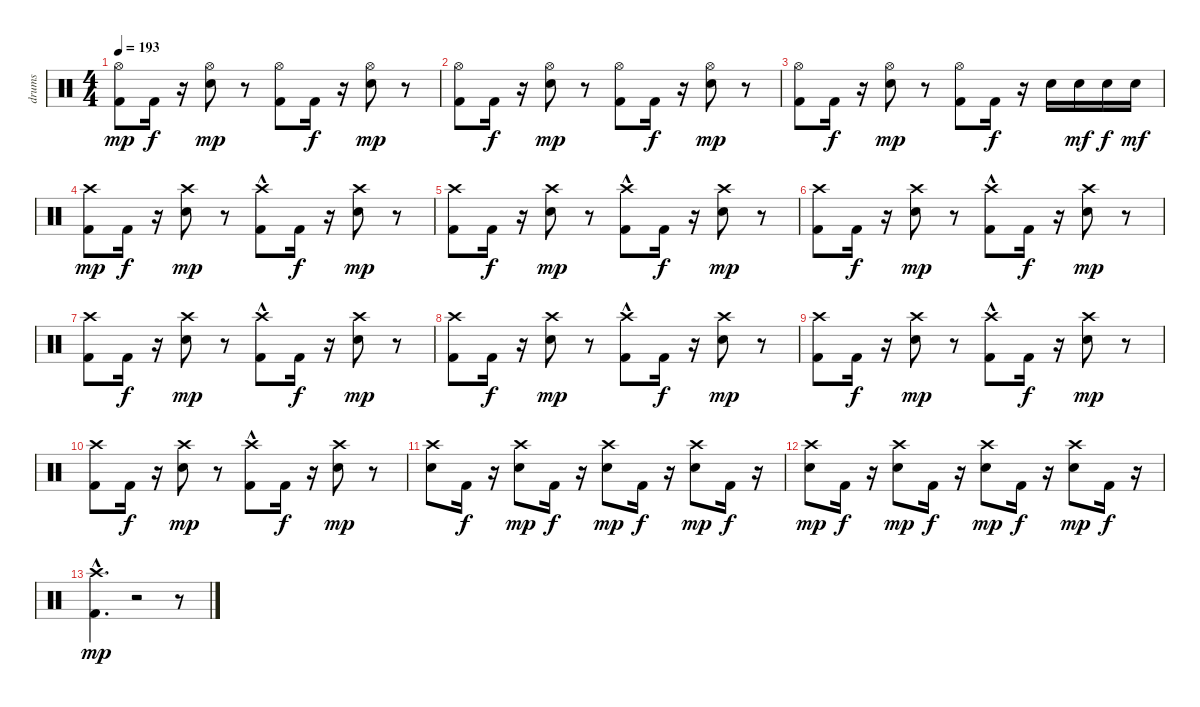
\track ("drums" "drums") {instrument percussion}
\staff {score}
\articulation defaults
\ts (4 4)
\tempo 193
\clef neutral
\ks c
("Kick (hit) 2" "Hi-Hat (open)").8{dy mp} "Kick (hit) 2".16{dy f} r.16 ("Snare (hit) 2" "Hi-Hat (open)").8{dy mp} r.8 ("Kick (hit) 2" "Hi-Hat (open)").8 "Kick (hit) 2".16{dy f} r.16 ("Snare (hit) 2" "Hi-Hat (open)").8{dy mp} r.8 |
("Kick (hit) 2" "Hi-Hat (open)").8 "Kick (hit) 2".16{dy f} r.16 ("Snare (hit) 2" "Hi-Hat (open)").8{dy mp} r.8 ("Kick (hit) 2" "Hi-Hat (open)").8 "Kick (hit) 2".16{dy f} r.16 ("Snare (hit) 2" "Hi-Hat (open)").8{dy mp} r.8 |
("Kick (hit) 2" "Hi-Hat (open)").8 "Kick (hit) 2".16{dy f} r.16 ("Snare (hit) 2" "Hi-Hat (open)").8{dy mp} r.8 ("Kick (hit) 2" "Hi-Hat (open)").8 "Kick (hit) 2".16{dy f} r.16 "Snare (hit) 2".16 "Snare (hit) 2".16{dy mf} "Snare (hit) 2".16{dy f} "Snare (hit) 2".16{dy mf} |
("Kick (hit) 2" "Crash high (hit)").8{dy mp} "Kick (hit) 2".16{dy f} r.16 ("Snare (hit) 2" "Crash high (hit)").8{dy mp} r.8 ("Kick (hit) 2" "Crash high (hit)"{hac}).8 "Kick (hit) 2".16{dy f} r.16 ("Snare (hit) 2" "Crash high (hit)").8{dy mp} r.8 |
("Kick (hit) 2" "Crash high (hit)").8 "Kick (hit) 2".16{dy f} r.16 ("Snare (hit) 2" "Crash high (hit)").8{dy mp} r.8 ("Kick (hit) 2" "Crash high (hit)"{hac}).8 "Kick (hit) 2".16{dy f} r.16 ("Snare (hit) 2" "Crash high (hit)").8{dy mp} r.8 |
("Kick (hit) 2" "Crash high (hit)").8 "Kick (hit) 2".16{dy f} r.16 ("Snare (hit) 2" "Crash high (hit)").8{dy mp} r.8 ("Kick (hit) 2" "Crash high (hit)"{hac}).8 "Kick (hit) 2".16{dy f} r.16 ("Snare (hit) 2" "Crash high (hit)").8{dy mp} r.8 |
("Kick (hit) 2" "Crash high (hit)").8 "Kick (hit) 2".16{dy f} r.16 ("Snare (hit) 2" "Crash high (hit)").8{dy mp} r.8 ("Kick (hit) 2" "Crash high (hit)"{hac}).8 "Kick (hit) 2".16{dy f} r.16 ("Snare (hit) 2" "Crash high (hit)").8{dy mp} r.8 |
("Kick (hit) 2" "Crash high (hit)").8 "Kick (hit) 2".16{dy f} r.16 ("Snare (hit) 2" "Crash high (hit)").8{dy mp} r.8 ("Kick (hit) 2" "Crash high (hit)"{hac}).8 "Kick (hit) 2".16{dy f} r.16 ("Snare (hit) 2" "Crash high (hit)").8{dy mp} r.8 |
("Kick (hit) 2" "Crash high (hit)").8 "Kick (hit) 2".16{dy f} r.16 ("Snare (hit) 2" "Crash high (hit)").8{dy mp} r.8 ("Kick (hit) 2" "Crash high (hit)"{hac}).8 "Kick (hit) 2".16{dy f} r.16 ("Snare (hit) 2" "Crash high (hit)").8{dy mp} r.8 |
("Kick (hit) 2" "Crash high (hit)").8 "Kick (hit) 2".16{dy f} r.16 ("Snare (hit) 2" "Crash high (hit)").8{dy mp} r.8 ("Kick (hit) 2" "Crash high (hit)"{hac}).8 "Kick (hit) 2".16{dy f} r.16 ("Snare (hit) 2" "Crash high (hit)").8{dy mp} r.8 |
("Snare (hit) 2" "Crash high (hit)").8 "Kick (hit) 2".16{dy f} r.16 ("Snare (hit) 2" "Crash high (hit)").8{dy mp} "Kick (hit) 2".16{dy f} r.16 ("Snare (hit) 2" "Crash high (hit)").8{dy mp} "Kick (hit) 2".16{dy f} r.16 ("Snare (hit) 2" "Crash high (hit)").8{dy mp} "Kick (hit) 2".16{dy f} r.16 |
("Snare (hit) 2" "Crash high (hit)").8{dy mp} "Kick (hit) 2".16{dy f} r.16 ("Snare (hit) 2" "Crash high (hit)").8{dy mp} "Kick (hit) 2".16{dy f} r.16 ("Snare (hit) 2" "Crash high (hit)").8{dy mp} "Kick (hit) 2".16{dy f} r.16 ("Snare (hit) 2" "Crash high (hit)").8{dy mp} "Kick (hit) 2".16{dy f} r.16 |
("Crash high (hit)"{hac} "Kick (hit) 2"{hac}).4{d dy mp} r.2 r.8
